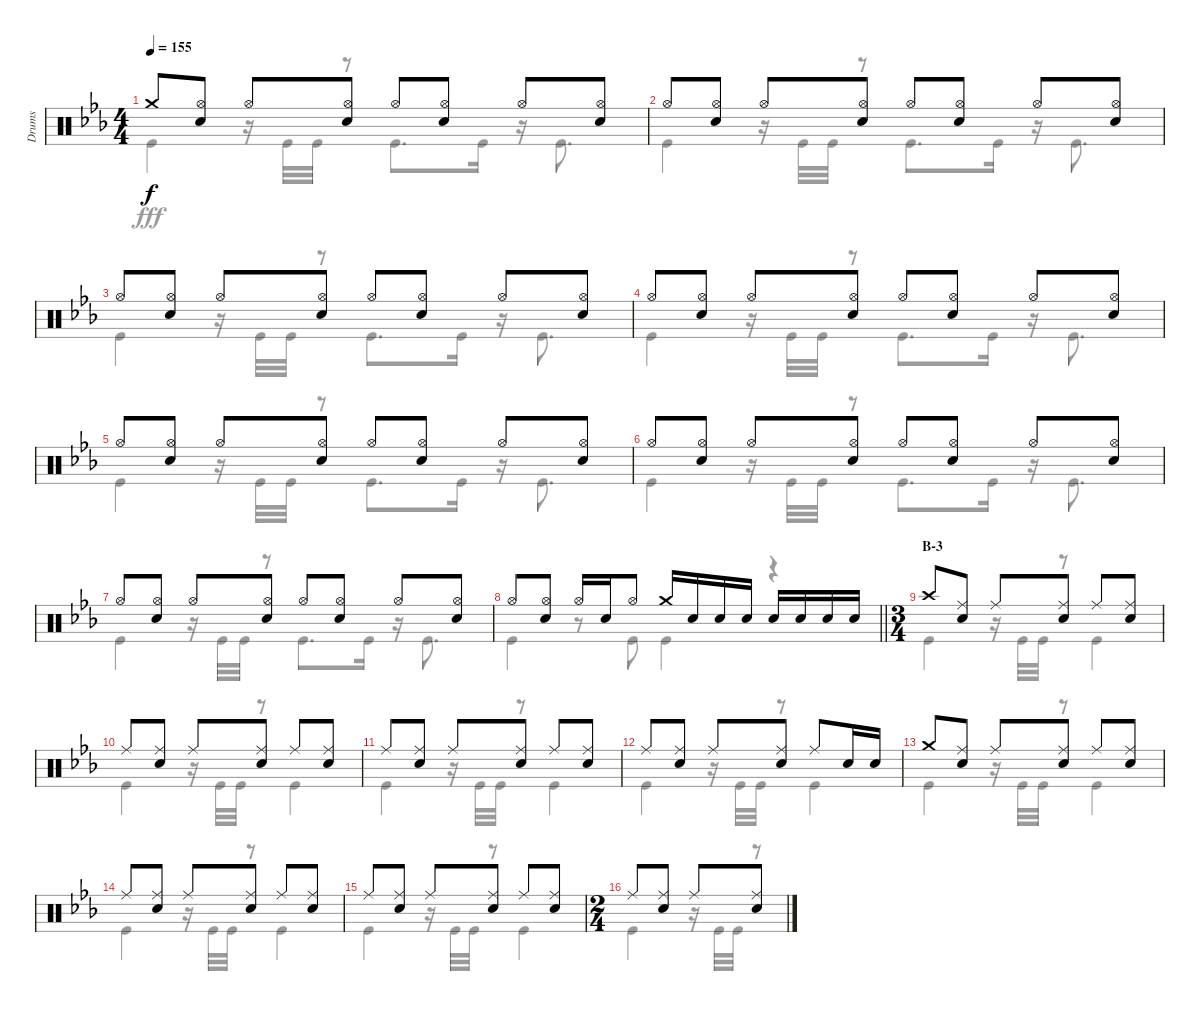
\track ("Drums" "Drums") {instrument percussion}
\staff {score}
\articulation defaults
\voice
\ts (4 4)
\tempo 155
\clef neutral
\ks eb "Crash medium (hit)".8{dy f}
("Hi-Hat (open)" "Snare (hit) 2").8 "Hi-Hat (open)".8 ("Hi-Hat (open)" "Snare (hit) 2").8 "Hi-Hat (open)".8 ("Hi-Hat (open)" "Snare (hit) 2").8 "Hi-Hat (open)".8 ("Hi-Hat (open)" "Snare (hit) 2").8 |
"Hi-Hat (open)".8 ("Hi-Hat (open)" "Snare (hit) 2").8 "Hi-Hat (open)".8 ("Hi-Hat (open)" "Snare (hit) 2").8 "Hi-Hat (open)".8 ("Hi-Hat (open)" "Snare (hit) 2").8 "Hi-Hat (open)".8 ("Hi-Hat (open)" "Snare (hit) 2").8 |
"Hi-Hat (open)".8 ("Hi-Hat (open)" "Snare (hit) 2").8 "Hi-Hat (open)".8 ("Hi-Hat (open)" "Snare (hit) 2").8 "Hi-Hat (open)".8 ("Hi-Hat (open)" "Snare (hit) 2").8 "Hi-Hat (open)".8 ("Hi-Hat (open)" "Snare (hit) 2").8 |
"Hi-Hat (open)".8 ("Hi-Hat (open)" "Snare (hit) 2").8 "Hi-Hat (open)".8 ("Hi-Hat (open)" "Snare (hit) 2").8 "Hi-Hat (open)".8 ("Hi-Hat (open)" "Snare (hit) 2").8 "Hi-Hat (open)".8 ("Hi-Hat (open)" "Snare (hit) 2").8 |
"Hi-Hat (open)".8 ("Hi-Hat (open)" "Snare (hit) 2").8 "Hi-Hat (open)".8 ("Hi-Hat (open)" "Snare (hit) 2").8 "Hi-Hat (open)".8 ("Hi-Hat (open)" "Snare (hit) 2").8 "Hi-Hat (open)".8 ("Hi-Hat (open)" "Snare (hit) 2").8 |
"Hi-Hat (open)".8 ("Hi-Hat (open)" "Snare (hit) 2").8 "Hi-Hat (open)".8 ("Hi-Hat (open)" "Snare (hit) 2").8 "Hi-Hat (open)".8 ("Hi-Hat (open)" "Snare (hit) 2").8 "Hi-Hat (open)".8 ("Hi-Hat (open)" "Snare (hit) 2").8 |
"Hi-Hat (open)".8 ("Hi-Hat (open)" "Snare (hit) 2").8 "Hi-Hat (open)".8 ("Hi-Hat (open)" "Snare (hit) 2").8 "Hi-Hat (open)".8 ("Hi-Hat (open)" "Snare (hit) 2").8 "Hi-Hat (open)".8 ("Hi-Hat (open)" "Snare (hit) 2").8 |
\barLineRight lightlight "Hi-Hat (open)".8
("Hi-Hat (open)" "Snare (hit) 2").8 "Hi-Hat (open)".16 "Snare (hit) 2".16 "Hi-Hat (open)".8 "Crash medium (hit)".16 "Snare (hit) 2".16 "Snare (hit) 2".16 "Snare (hit) 2".16 "Snare (hit) 2".16 "Snare (hit) 2".16 "Snare (hit) 2".16 "Snare (hit) 2".16 |
\ts (3 4)
\section ("" "B-3")
"Crash high (hit)".8 ("Ride (middle)" "Snare (hit) 2").8 "Ride (middle)".8 ("Ride (middle)" "Snare (hit) 2").8 "Ride (middle)".8 ("Ride (middle)" "Snare (hit) 2").8 |
"Ride (middle)".8 ("Ride (middle)" "Snare (hit) 2").8 "Ride (middle)".8 ("Ride (middle)" "Snare (hit) 2").8 "Ride (middle)".8 ("Ride (middle)" "Snare (hit) 2").8 |
"Ride (middle)".8 ("Ride (middle)" "Snare (hit) 2").8 "Ride (middle)".8 ("Ride (middle)" "Snare (hit) 2").8 "Ride (middle)".8 ("Ride (middle)" "Snare (hit) 2").8 |
"Ride (middle)".8 ("Ride (middle)" "Snare (hit) 2").8 "Ride (middle)".8 ("Ride (middle)" "Snare (hit) 2").8 "Ride (middle)".8 "Snare (hit) 2".16 "Snare (hit) 2".16 |
"Crash medium (hit)".8 ("Ride (middle)" "Snare (hit) 2").8 "Ride (middle)".8 ("Ride (middle)" "Snare (hit) 2").8 "Ride (middle)".8 ("Ride (middle)" "Snare (hit) 2").8 |
"Ride (middle)".8 ("Ride (middle)" "Snare (hit) 2").8 "Ride (middle)".8 ("Ride (middle)" "Snare (hit) 2").8 "Ride (middle)".8 ("Ride (middle)" "Snare (hit) 2").8 |
"Ride (middle)".8 ("Ride (middle)" "Snare (hit) 2").8 "Ride (middle)".8 ("Ride (middle)" "Snare (hit) 2").8 "Ride (middle)".8 ("Ride (middle)" "Snare (hit) 2").8 |
\ts (2 4)
"Ride (middle)".8 ("Ride (middle)" "Snare (hit) 2").8 "Ride (middle)".8 ("Ride (middle)" "Snare (hit) 2").8
\voice
\clef neutral
\ottava regular
\simile none
\ks eb "Kick (hit)".4{dy fff}
r.16 "Kick (hit)".32 "Kick (hit)".32 r.8 "Kick (hit)".8{d} "Kick (hit)".16 r.16 "Kick (hit)".8{d} |
"Kick (hit)".4 r.16 "Kick (hit)".32 "Kick (hit)".32 r.8 "Kick (hit)".8{d} "Kick (hit)".16 r.16 "Kick (hit)".8{d} |
"Kick (hit)".4 r.16 "Kick (hit)".32 "Kick (hit)".32 r.8 "Kick (hit)".8{d} "Kick (hit)".16 r.16 "Kick (hit)".8{d} |
"Kick (hit)".4 r.16 "Kick (hit)".32 "Kick (hit)".32 r.8 "Kick (hit)".8{d} "Kick (hit)".16 r.16 "Kick (hit)".8{d} |
"Kick (hit)".4 r.16 "Kick (hit)".32 "Kick (hit)".32 r.8 "Kick (hit)".8{d} "Kick (hit)".16 r.16 "Kick (hit)".8{d} |
"Kick (hit)".4 r.16 "Kick (hit)".32 "Kick (hit)".32 r.8 "Kick (hit)".8{d} "Kick (hit)".16 r.16 "Kick (hit)".8{d} |
"Kick (hit)".4 r.16 "Kick (hit)".32 "Kick (hit)".32 r.8 "Kick (hit)".8{d} "Kick (hit)".16 r.16 "Kick (hit)".8{d} |
\barLineRight lightlight "Kick (hit)".4
r.8 "Kick (hit)".8 "Kick (hit)".4 r.4 |
"Kick (hit)".4 r.16 "Kick (hit)".32 "Kick (hit)".32 r.8 "Kick (hit)".4 |
"Kick (hit)".4 r.16 "Kick (hit)".32 "Kick (hit)".32 r.8 "Kick (hit)".4 |
"Kick (hit)".4 r.16 "Kick (hit)".32 "Kick (hit)".32 r.8 "Kick (hit)".4 |
"Kick (hit)".4 r.16 "Kick (hit)".32 "Kick (hit)".32 r.8 "Kick (hit)".4 |
"Kick (hit)".4 r.16 "Kick (hit)".32 "Kick (hit)".32 r.8 "Kick (hit)".4 |
"Kick (hit)".4 r.16 "Kick (hit)".32 "Kick (hit)".32 r.8 "Kick (hit)".4 |
"Kick (hit)".4 r.16 "Kick (hit)".32 "Kick (hit)".32 r.8 "Kick (hit)".4 |
"Kick (hit)".4 r.16 "Kick (hit)".32 "Kick (hit)".32 r.8
